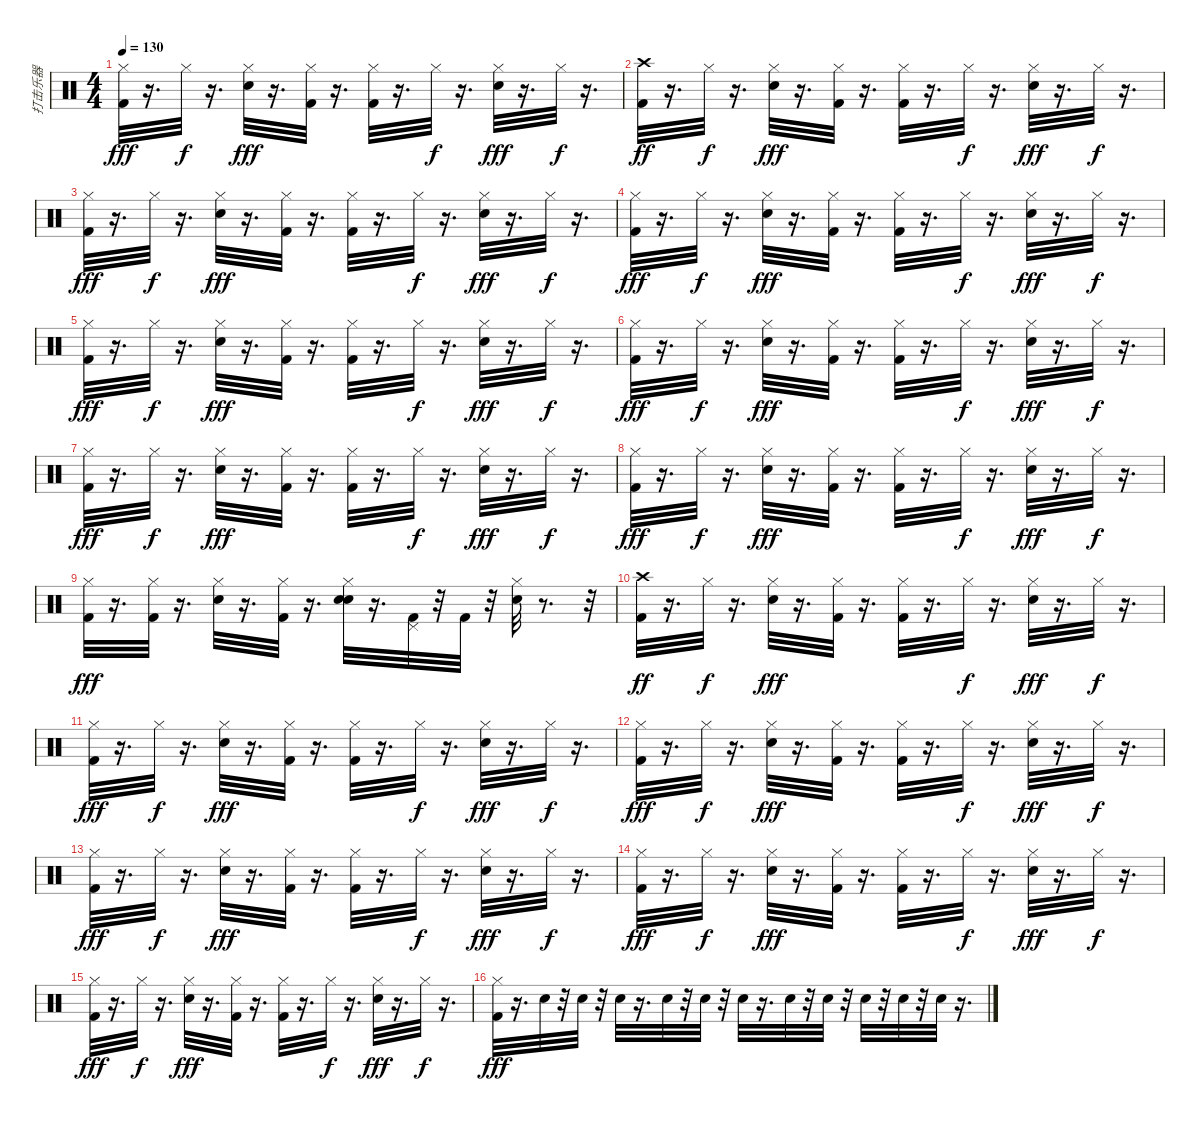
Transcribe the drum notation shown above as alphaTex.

\track ("打击乐器" "打击乐器") {instrument percussion}
\staff {score}
\articulation defaults
\ts (4 4)
\tempo 130
\clef neutral
\ks c
("Kick (hit) 2" "Hi-Hat (closed)").32{dy fff} r.16{d} "Hi-Hat (closed)".32{dy f} r.16{d} ("Hi-Hat (closed)" "Electric Snare (hit)").32{dy fff} r.16{d} ("Kick (hit) 2" "Hi-Hat (closed)").32 r.16{d} ("Kick (hit) 2" "Hi-Hat (closed)").32 r.16{d} "Hi-Hat (closed)".32{dy f} r.16{d} ("Hi-Hat (closed)" "Electric Snare (hit)").32{dy fff} r.16{d} "Hi-Hat (closed)".32{dy f} r.16{d} |
("Kick (hit) 2" "Crash high (hit)").32{dy ff} r.16{d} "Hi-Hat (closed)".32{dy f} r.16{d} ("Hi-Hat (closed)" "Electric Snare (hit)").32{dy fff} r.16{d} ("Kick (hit) 2" "Hi-Hat (closed)").32 r.16{d} ("Kick (hit) 2" "Hi-Hat (closed)").32 r.16{d} "Hi-Hat (closed)".32{dy f} r.16{d} ("Hi-Hat (closed)" "Electric Snare (hit)").32{dy fff} r.16{d} "Hi-Hat (closed)".32{dy f} r.16{d} |
("Kick (hit) 2" "Hi-Hat (closed)").32{dy fff} r.16{d} "Hi-Hat (closed)".32{dy f} r.16{d} ("Hi-Hat (closed)" "Electric Snare (hit)").32{dy fff} r.16{d} ("Kick (hit) 2" "Hi-Hat (closed)").32 r.16{d} ("Kick (hit) 2" "Hi-Hat (closed)").32 r.16{d} "Hi-Hat (closed)".32{dy f} r.16{d} ("Hi-Hat (closed)" "Electric Snare (hit)").32{dy fff} r.16{d} "Hi-Hat (closed)".32{dy f} r.16{d} |
("Kick (hit) 2" "Hi-Hat (closed)").32{dy fff} r.16{d} "Hi-Hat (closed)".32{dy f} r.16{d} ("Hi-Hat (closed)" "Electric Snare (hit)").32{dy fff} r.16{d} ("Kick (hit) 2" "Hi-Hat (closed)").32 r.16{d} ("Kick (hit) 2" "Hi-Hat (closed)").32 r.16{d} "Hi-Hat (closed)".32{dy f} r.16{d} ("Hi-Hat (closed)" "Electric Snare (hit)").32{dy fff} r.16{d} "Hi-Hat (closed)".32{dy f} r.16{d} |
("Kick (hit) 2" "Hi-Hat (closed)").32{dy fff} r.16{d} "Hi-Hat (closed)".32{dy f} r.16{d} ("Hi-Hat (closed)" "Electric Snare (hit)").32{dy fff} r.16{d} ("Kick (hit) 2" "Hi-Hat (closed)").32 r.16{d} ("Kick (hit) 2" "Hi-Hat (closed)").32 r.16{d} "Hi-Hat (closed)".32{dy f} r.16{d} ("Hi-Hat (closed)" "Electric Snare (hit)").32{dy fff} r.16{d} "Hi-Hat (closed)".32{dy f} r.16{d} |
("Kick (hit) 2" "Hi-Hat (closed)").32{dy fff} r.16{d} "Hi-Hat (closed)".32{dy f} r.16{d} ("Hi-Hat (closed)" "Electric Snare (hit)").32{dy fff} r.16{d} ("Kick (hit) 2" "Hi-Hat (closed)").32 r.16{d} ("Kick (hit) 2" "Hi-Hat (closed)").32 r.16{d} "Hi-Hat (closed)".32{dy f} r.16{d} ("Hi-Hat (closed)" "Electric Snare (hit)").32{dy fff} r.16{d} "Hi-Hat (closed)".32{dy f} r.16{d} |
("Kick (hit) 2" "Hi-Hat (closed)").32{dy fff} r.16{d} "Hi-Hat (closed)".32{dy f} r.16{d} ("Hi-Hat (closed)" "Electric Snare (hit)").32{dy fff} r.16{d} ("Kick (hit) 2" "Hi-Hat (closed)").32 r.16{d} ("Kick (hit) 2" "Hi-Hat (closed)").32 r.16{d} "Hi-Hat (closed)".32{dy f} r.16{d} ("Hi-Hat (closed)" "Electric Snare (hit)").32{dy fff} r.16{d} "Hi-Hat (closed)".32{dy f} r.16{d} |
("Kick (hit) 2" "Hi-Hat (closed)").32{dy fff} r.16{d} "Hi-Hat (closed)".32{dy f} r.16{d} ("Hi-Hat (closed)" "Electric Snare (hit)").32{dy fff} r.16{d} ("Kick (hit) 2" "Hi-Hat (closed)").32 r.16{d} ("Kick (hit) 2" "Hi-Hat (closed)").32 r.16{d} "Hi-Hat (closed)".32{dy f} r.16{d} ("Hi-Hat (closed)" "Electric Snare (hit)").32{dy fff} r.16{d} "Hi-Hat (closed)".32{dy f} r.16{d} |
("Kick (hit) 2" "Hi-Hat (closed)").32{dy fff} r.16{d} ("Hi-Hat (closed)" "Kick (hit) 2").32 r.16{d} ("Hi-Hat (closed)" "Electric Snare (hit)").32 r.16{d} ("Kick (hit) 2" "Hi-Hat (closed)").32 r.16{d} ("Electric Snare (hit)" "Hi-Hat (closed)" "Electric Snare (hit)").32 r.16{d} ("Pedal Hi-Hat (hit)" "Kick (hit) 2").32 r.32 "Kick (hit) 2".32 r.32 ("Electric Snare (hit)" "Hi-Hat (closed)").32 r.8{d} r.32 |
("Kick (hit) 2" "Crash high (hit)").32{dy ff} r.16{d} "Hi-Hat (closed)".32{dy f} r.16{d} ("Hi-Hat (closed)" "Electric Snare (hit)").32{dy fff} r.16{d} ("Kick (hit) 2" "Hi-Hat (closed)").32 r.16{d} ("Kick (hit) 2" "Hi-Hat (closed)").32 r.16{d} "Hi-Hat (closed)".32{dy f} r.16{d} ("Hi-Hat (closed)" "Electric Snare (hit)").32{dy fff} r.16{d} "Hi-Hat (closed)".32{dy f} r.16{d} |
("Kick (hit) 2" "Hi-Hat (closed)").32{dy fff} r.16{d} "Hi-Hat (closed)".32{dy f} r.16{d} ("Hi-Hat (closed)" "Electric Snare (hit)").32{dy fff} r.16{d} ("Kick (hit) 2" "Hi-Hat (closed)").32 r.16{d} ("Kick (hit) 2" "Hi-Hat (closed)").32 r.16{d} "Hi-Hat (closed)".32{dy f} r.16{d} ("Hi-Hat (closed)" "Electric Snare (hit)").32{dy fff} r.16{d} "Hi-Hat (closed)".32{dy f} r.16{d} |
("Kick (hit) 2" "Hi-Hat (closed)").32{dy fff} r.16{d} "Hi-Hat (closed)".32{dy f} r.16{d} ("Hi-Hat (closed)" "Electric Snare (hit)").32{dy fff} r.16{d} ("Kick (hit) 2" "Hi-Hat (closed)").32 r.16{d} ("Kick (hit) 2" "Hi-Hat (closed)").32 r.16{d} "Hi-Hat (closed)".32{dy f} r.16{d} ("Hi-Hat (closed)" "Electric Snare (hit)").32{dy fff} r.16{d} "Hi-Hat (closed)".32{dy f} r.16{d} |
("Kick (hit) 2" "Hi-Hat (closed)").32{dy fff} r.16{d} "Hi-Hat (closed)".32{dy f} r.16{d} ("Hi-Hat (closed)" "Electric Snare (hit)").32{dy fff} r.16{d} ("Kick (hit) 2" "Hi-Hat (closed)").32 r.16{d} ("Kick (hit) 2" "Hi-Hat (closed)").32 r.16{d} "Hi-Hat (closed)".32{dy f} r.16{d} ("Hi-Hat (closed)" "Electric Snare (hit)").32{dy fff} r.16{d} "Hi-Hat (closed)".32{dy f} r.16{d} |
("Kick (hit) 2" "Hi-Hat (closed)").32{dy fff} r.16{d} "Hi-Hat (closed)".32{dy f} r.16{d} ("Hi-Hat (closed)" "Electric Snare (hit)").32{dy fff} r.16{d} ("Kick (hit) 2" "Hi-Hat (closed)").32 r.16{d} ("Kick (hit) 2" "Hi-Hat (closed)").32 r.16{d} "Hi-Hat (closed)".32{dy f} r.16{d} ("Hi-Hat (closed)" "Electric Snare (hit)").32{dy fff} r.16{d} "Hi-Hat (closed)".32{dy f} r.16{d} |
("Kick (hit) 2" "Hi-Hat (closed)").32{dy fff} r.16{d} "Hi-Hat (closed)".32{dy f} r.16{d} ("Hi-Hat (closed)" "Electric Snare (hit)").32{dy fff} r.16{d} ("Kick (hit) 2" "Hi-Hat (closed)").32 r.16{d} ("Kick (hit) 2" "Hi-Hat (closed)").32 r.16{d} "Hi-Hat (closed)".32{dy f} r.16{d} ("Hi-Hat (closed)" "Electric Snare (hit)").32{dy fff} r.16{d} "Hi-Hat (closed)".32{dy f} r.16{d} |
("Kick (hit) 2" "Hi-Hat (closed)").32{dy fff} r.16{d} "Snare (hit) 2".32 r.32 "Electric Snare (hit)".32 r.32 "Snare (hit) 2".32 r.16{d} "Snare (hit) 2".32 r.32 "Electric Snare (hit)".32 r.32 "Snare (hit) 2".32 r.16{d} "Snare (hit) 2".32 r.32 "Electric Snare (hit)".32 r.32 "Snare (hit) 2".32 r.32 "Electric Snare (hit)".32 r.32 "Snare (hit) 2".32 r.16{d}
